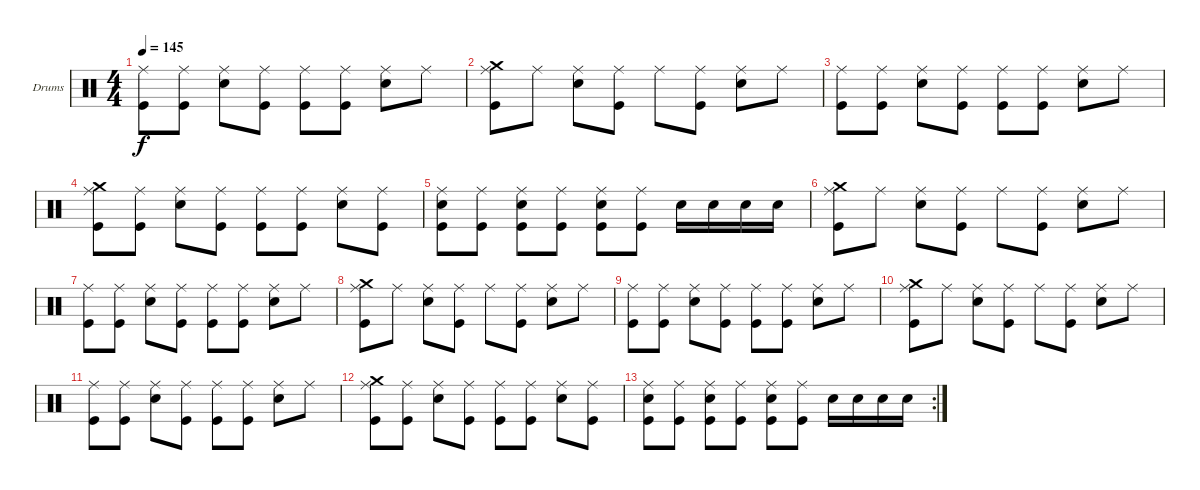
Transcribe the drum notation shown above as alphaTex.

\defaultSystemsLayout 4
\bracketExtendMode groupsimilarinstruments
\firstSystemTrackNameOrientation horizontal
\otherSystemsTrackNameOrientation horizontal
\track ("Drumkit" "Drums") {instrument percussion}
\staff {score}
\articulation defaults
\ts (4 4)
\tempo 145
\clef neutral
\ks c
("Kick (hit)" "Ride (middle)").8{dy f} ("Kick (hit)" "Ride (middle)").8 ("Snare (hit) 2" "Ride (middle)").8 ("Kick (hit)" "Ride (middle)").8 ("Kick (hit)" "Ride (middle)").8 ("Kick (hit)" "Ride (middle)").8 ("Snare (hit) 2" "Ride (middle)").8 "Ride (middle)".8 |
("Kick (hit)" "Ride (middle)" "Crash medium (hit)").8 "Ride (middle)".8 ("Snare (hit) 2" "Ride (middle)").8 ("Kick (hit)" "Ride (middle)").8 "Ride (middle)".8 ("Kick (hit)" "Ride (middle)").8 ("Snare (hit) 2" "Ride (middle)").8 "Ride (middle)".8 |
("Kick (hit)" "Ride (middle)").8 ("Kick (hit)" "Ride (middle)").8 ("Snare (hit) 2" "Ride (middle)").8 ("Kick (hit)" "Ride (middle)").8 ("Kick (hit)" "Ride (middle)").8 ("Kick (hit)" "Ride (middle)").8 ("Snare (hit) 2" "Ride (middle)").8 "Ride (middle)".8 |
("Crash medium (hit)" "Kick (hit)" "Ride (middle)").8 ("Ride (middle)" "Kick (hit)").8 ("Snare (hit) 2" "Ride (middle)").8 ("Kick (hit)" "Ride (middle)").8 ("Ride (middle)" "Kick (hit)").8 ("Kick (hit)" "Ride (middle)").8 ("Snare (hit) 2" "Ride (middle)").8 ("Ride (middle)" "Kick (hit)").8 |
("Kick (hit)" "Snare (hit) 2" "Ride (middle)").8 ("Kick (hit)" "Ride (middle)").8 ("Kick (hit)" "Snare (hit) 2" "Ride (middle)").8 ("Kick (hit)" "Ride (middle)").8 ("Kick (hit)" "Snare (hit) 2" "Ride (middle)").8 ("Kick (hit)" "Ride (middle)").8 "Snare (hit) 2".16 "Snare (hit) 2".16 "Snare (hit) 2".16 "Snare (hit) 2".16 |
("Kick (hit)" "Ride (middle)" "Crash medium (hit)").8 "Ride (middle)".8 ("Snare (hit) 2" "Ride (middle)").8 ("Kick (hit)" "Ride (middle)").8 "Ride (middle)".8 ("Kick (hit)" "Ride (middle)").8 ("Snare (hit) 2" "Ride (middle)").8 "Ride (middle)".8 |
("Kick (hit)" "Ride (middle)").8 ("Kick (hit)" "Ride (middle)").8 ("Snare (hit) 2" "Ride (middle)").8 ("Kick (hit)" "Ride (middle)").8 ("Kick (hit)" "Ride (middle)").8 ("Kick (hit)" "Ride (middle)").8 ("Snare (hit) 2" "Ride (middle)").8 "Ride (middle)".8 |
("Crash medium (hit)" "Kick (hit)" "Ride (middle)").8 "Ride (middle)".8 ("Snare (hit) 2" "Ride (middle)").8 ("Kick (hit)" "Ride (middle)").8 "Ride (middle)".8 ("Kick (hit)" "Ride (middle)").8 ("Snare (hit) 2" "Ride (middle)").8 "Ride (middle)".8 |
("Kick (hit)" "Ride (middle)").8 ("Kick (hit)" "Ride (middle)").8 ("Snare (hit) 2" "Ride (middle)").8 ("Kick (hit)" "Ride (middle)").8 ("Kick (hit)" "Ride (middle)").8 ("Kick (hit)" "Ride (middle)").8 ("Snare (hit) 2" "Ride (middle)").8 "Ride (middle)".8 |
("Kick (hit)" "Ride (middle)" "Crash medium (hit)").8 "Ride (middle)".8 ("Snare (hit) 2" "Ride (middle)").8 ("Kick (hit)" "Ride (middle)").8 "Ride (middle)".8 ("Kick (hit)" "Ride (middle)").8 ("Snare (hit) 2" "Ride (middle)").8 "Ride (middle)".8 |
("Kick (hit)" "Ride (middle)").8 ("Kick (hit)" "Ride (middle)").8 ("Snare (hit) 2" "Ride (middle)").8 ("Kick (hit)" "Ride (middle)").8 ("Kick (hit)" "Ride (middle)").8 ("Kick (hit)" "Ride (middle)").8 ("Snare (hit) 2" "Ride (middle)").8 "Ride (middle)".8 |
("Crash medium (hit)" "Kick (hit)" "Ride (middle)").8 ("Ride (middle)" "Kick (hit)").8 ("Snare (hit) 2" "Ride (middle)").8 ("Kick (hit)" "Ride (middle)").8 ("Ride (middle)" "Kick (hit)").8 ("Kick (hit)" "Ride (middle)").8 ("Snare (hit) 2" "Ride (middle)").8 ("Ride (middle)" "Kick (hit)").8 |
\rc 2
("Kick (hit)" "Snare (hit) 2" "Ride (middle)").8 ("Kick (hit)" "Ride (middle)").8 ("Kick (hit)" "Snare (hit) 2" "Ride (middle)").8 ("Kick (hit)" "Ride (middle)").8 ("Kick (hit)" "Snare (hit) 2" "Ride (middle)").8 ("Kick (hit)" "Ride (middle)").8 "Snare (hit) 2".16 "Snare (hit) 2".16 "Snare (hit) 2".16 "Snare (hit) 2".16
